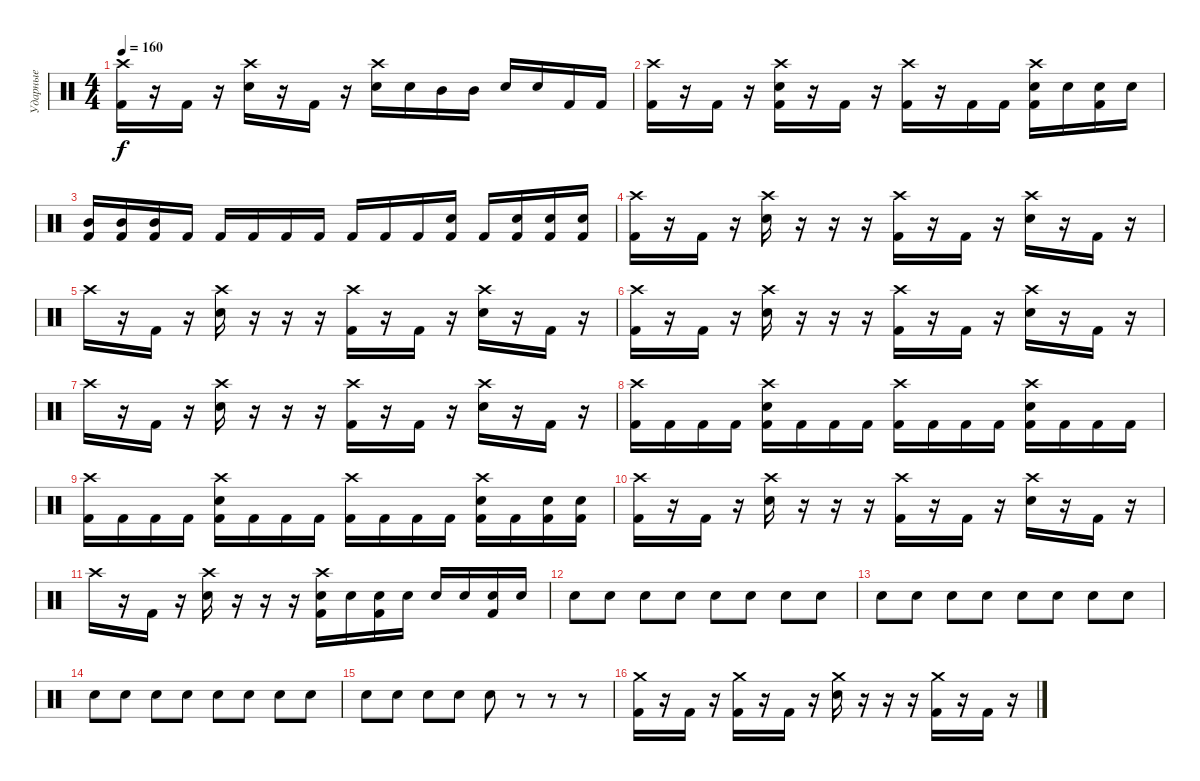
\track ("Ударные" "Ударные") {instrument percussion}
\staff {score}
\articulation defaults
\ts (4 4)
\tempo 160
\clef neutral
\ks c
("Crash high (hit)" "Kick (hit) 2").16{dy f} r.16 "Kick (hit) 2".16 r.16 ("Crash high (hit)" "Electric Snare (hit)").16 r.16 "Kick (hit) 2".16 r.16 ("Crash high (hit)" "Electric Snare (hit)").16 "Electric Snare (hit)".16 "Mid Tom (hit)".16 "Mid Tom (hit)".16 "Electric Snare (hit)".16 "Electric Snare (hit)".16 "Kick (hit) 2".16 "Kick (hit) 2".16 |
("Crash high (hit)" "Kick (hit) 2").16 r.16 "Kick (hit) 2".16 r.16 ("Crash high (hit)" "Electric Snare (hit)" "Kick (hit) 2").16 r.16 "Kick (hit) 2".16 r.16 ("Crash high (hit)" "Kick (hit) 2").16 r.16 "Kick (hit) 2".16 "Kick (hit) 2".16 ("Crash high (hit)" "Electric Snare (hit)" "Kick (hit) 2").16 "Electric Snare (hit)".16 ("Electric Snare (hit)" "Kick (hit) 2").16 "Electric Snare (hit)".16 |
("Mid Tom (hit)" "Kick (hit) 2").16 ("Mid Tom (hit)" "Kick (hit) 2").16 ("Mid Tom (hit)" "Kick (hit) 2").16 "Kick (hit) 2".16 "Kick (hit) 2".16 "Kick (hit) 2".16 "Kick (hit) 2".16 "Kick (hit) 2".16 "Kick (hit) 2".16 "Kick (hit) 2".16 "Kick (hit) 2".16 ("Electric Snare (hit)" "Kick (hit) 2").16 "Kick (hit) 2".16 ("Electric Snare (hit)" "Kick (hit) 2").16 ("Electric Snare (hit)" "Kick (hit) 2").16 ("Electric Snare (hit)" "Kick (hit) 2").16 |
("Crash high (hit)" "Kick (hit) 2").16 r.16 "Kick (hit) 2".16 r.16 ("Crash high (hit)" "Electric Snare (hit)").16 r.16 r.16 r.16 ("Crash high (hit)" "Kick (hit) 2").16 r.16 "Kick (hit) 2".16 r.16 ("Crash high (hit)" "Electric Snare (hit)").16 r.16 "Kick (hit) 2".16 r.16 |
"Crash high (hit)".16 r.16 "Kick (hit) 2".16 r.16 ("Crash high (hit)" "Electric Snare (hit)").16 r.16 r.16 r.16 ("Crash high (hit)" "Kick (hit) 2").16 r.16 "Kick (hit) 2".16 r.16 ("Crash high (hit)" "Electric Snare (hit)").16 r.16 "Kick (hit) 2".16 r.16 |
("Crash high (hit)" "Kick (hit) 2").16 r.16 "Kick (hit) 2".16 r.16 ("Crash high (hit)" "Electric Snare (hit)").16 r.16 r.16 r.16 ("Crash high (hit)" "Kick (hit) 2").16 r.16 "Kick (hit) 2".16 r.16 ("Crash high (hit)" "Electric Snare (hit)").16 r.16 "Kick (hit) 2".16 r.16 |
"Crash high (hit)".16 r.16 "Kick (hit) 2".16 r.16 ("Crash high (hit)" "Electric Snare (hit)").16 r.16 r.16 r.16 ("Crash high (hit)" "Kick (hit) 2").16 r.16 "Kick (hit) 2".16 r.16 ("Crash high (hit)" "Electric Snare (hit)").16 r.16 "Kick (hit) 2".16 r.16 |
("Crash high (hit)" "Kick (hit) 2").16 "Kick (hit) 2".16 "Kick (hit) 2".16 "Kick (hit) 2".16 ("Crash high (hit)" "Electric Snare (hit)" "Kick (hit) 2").16 "Kick (hit) 2".16 "Kick (hit) 2".16 "Kick (hit) 2".16 ("Crash high (hit)" "Kick (hit) 2").16 "Kick (hit) 2".16 "Kick (hit) 2".16 "Kick (hit) 2".16 ("Crash high (hit)" "Electric Snare (hit)" "Kick (hit) 2").16 "Kick (hit) 2".16 "Kick (hit) 2".16 "Kick (hit) 2".16 |
("Crash high (hit)" "Kick (hit) 2").16 "Kick (hit) 2".16 "Kick (hit) 2".16 "Kick (hit) 2".16 ("Crash high (hit)" "Electric Snare (hit)" "Kick (hit) 2").16 "Kick (hit) 2".16 "Kick (hit) 2".16 "Kick (hit) 2".16 ("Crash high (hit)" "Kick (hit) 2").16 "Kick (hit) 2".16 "Kick (hit) 2".16 "Kick (hit) 2".16 ("Crash high (hit)" "Electric Snare (hit)" "Kick (hit) 2").16 "Kick (hit) 2".16 ("Electric Snare (hit)" "Kick (hit) 2").16 ("Electric Snare (hit)" "Kick (hit) 2").16 |
("Crash high (hit)" "Kick (hit) 2").16 r.16 "Kick (hit) 2".16 r.16 ("Crash high (hit)" "Electric Snare (hit)").16 r.16 r.16 r.16 ("Crash high (hit)" "Kick (hit) 2").16 r.16 "Kick (hit) 2".16 r.16 ("Crash high (hit)" "Electric Snare (hit)").16 r.16 "Kick (hit) 2".16 r.16 |
"Crash high (hit)".16 r.16 "Kick (hit) 2".16 r.16 ("Crash high (hit)" "Electric Snare (hit)").16 r.16 r.16 r.16 ("Crash high (hit)" "Electric Snare (hit)" "Kick (hit) 2").16 "Electric Snare (hit)".16 ("Electric Snare (hit)" "Kick (hit) 2").16 "Electric Snare (hit)".16 "Electric Snare (hit)".16 "Electric Snare (hit)".16 ("Electric Snare (hit)" "Kick (hit) 2").16 "Electric Snare (hit)".16 |
"Electric Snare (hit)".8 "Electric Snare (hit)".8 "Electric Snare (hit)".8 "Electric Snare (hit)".8 "Electric Snare (hit)".8 "Electric Snare (hit)".8 "Electric Snare (hit)".8 "Electric Snare (hit)".8 |
"Electric Snare (hit)".8 "Electric Snare (hit)".8 "Electric Snare (hit)".8 "Electric Snare (hit)".8 "Electric Snare (hit)".8 "Electric Snare (hit)".8 "Electric Snare (hit)".8 "Electric Snare (hit)".8 |
"Electric Snare (hit)".8 "Electric Snare (hit)".8 "Electric Snare (hit)".8 "Electric Snare (hit)".8 "Electric Snare (hit)".8 "Electric Snare (hit)".8 "Electric Snare (hit)".8 "Electric Snare (hit)".8 |
"Electric Snare (hit)".8 "Electric Snare (hit)".8 "Electric Snare (hit)".8 "Electric Snare (hit)".8 "Electric Snare (hit)".8 r.8 r.8 r.8 |
("Crash medium (hit)" "Kick (hit) 2").16 r.16 "Kick (hit) 2".16 r.16 ("Crash medium (hit)" "Kick (hit) 2").16 r.16 "Kick (hit) 2".16 r.16 ("Crash medium (hit)" "Electric Snare (hit)").16 r.16 r.16 r.16 ("Crash medium (hit)" "Kick (hit) 2").16 r.16 "Kick (hit) 2".16 r.16
